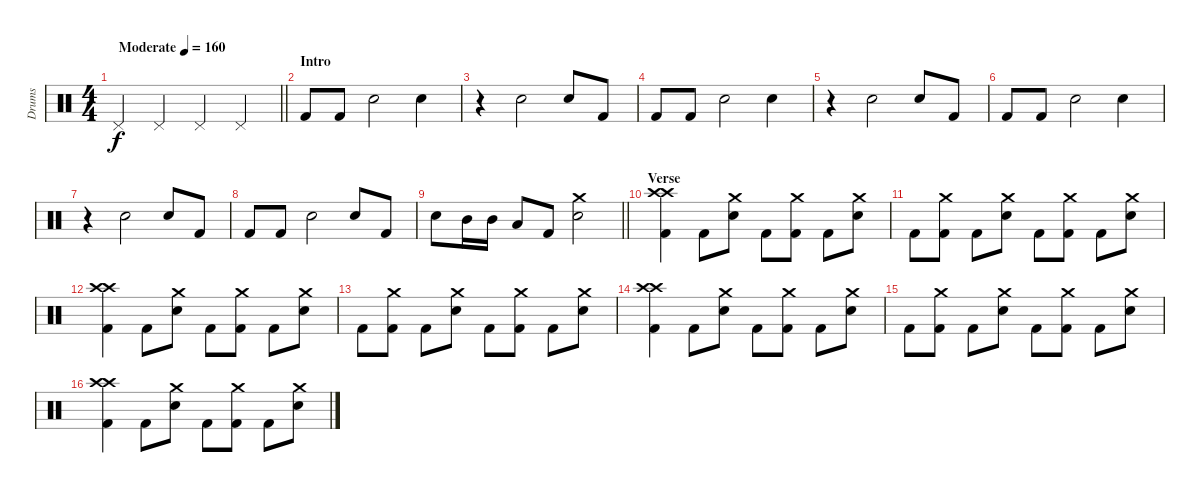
\track ("Drums" "Drums") {instrument percussion}
\staff {score}
\articulation defaults
\ts (4 4)
\tempo (160 "Moderate")
\clef neutral
\barLineRight lightlight
\ks c "Pedal Hi-Hat (hit)".4{dy f} "Pedal Hi-Hat (hit)".4 "Pedal Hi-Hat (hit)".4 "Pedal Hi-Hat (hit)".4
|
\section ("" "Intro")
"Kick (hit) 2".8 "Kick (hit) 2".8 "Electric Snare (hit)".2 "Electric Snare (hit)".4 |
r.4 "Electric Snare (hit)".2 "Electric Snare (hit)".8 "Kick (hit) 2".8 |
"Kick (hit) 2".8 "Kick (hit) 2".8 "Electric Snare (hit)".2 "Electric Snare (hit)".4 |
r.4 "Electric Snare (hit)".2 "Electric Snare (hit)".8 "Kick (hit) 2".8 |
"Kick (hit) 2".8 "Kick (hit) 2".8 "Electric Snare (hit)".2 "Electric Snare (hit)".4 |
r.4 "Electric Snare (hit)".2 "Electric Snare (hit)".8 "Kick (hit) 2".8 |
"Kick (hit) 2".8 "Kick (hit) 2".8 "Electric Snare (hit)".2 "Electric Snare (hit)".8 "Kick (hit) 2".8 |
\barLineRight lightlight "Electric Snare (hit)".8 "Mid Tom (hit)".16 "Mid Tom (hit)".16 "Low Tom (hit)".8 "Kick (hit) 2".8
("Crash medium (hit)" "Electric Snare (hit)").2 |
\section ("" "Verse")
("Crash high (hit)" "Crash high (hit)" "Kick (hit) 2").4 "Kick (hit) 2".8 ("Crash medium (hit)" "Electric Snare (hit)").8 "Kick (hit) 2".8 ("Crash medium (hit)" "Kick (hit) 2").8 "Kick (hit) 2".8 ("Crash medium (hit)" "Electric Snare (hit)").8 |
"Kick (hit) 2".8 ("Crash medium (hit)" "Kick (hit) 2").8 "Kick (hit) 2".8 ("Crash medium (hit)" "Electric Snare (hit)").8 "Kick (hit) 2".8 ("Crash medium (hit)" "Kick (hit) 2").8 "Kick (hit) 2".8 ("Crash medium (hit)" "Electric Snare (hit)").8 |
("Crash high (hit)" "Crash high (hit)" "Kick (hit) 2").4 "Kick (hit) 2".8 ("Crash medium (hit)" "Electric Snare (hit)").8 "Kick (hit) 2".8 ("Crash medium (hit)" "Kick (hit) 2").8 "Kick (hit) 2".8 ("Crash medium (hit)" "Electric Snare (hit)").8 |
"Kick (hit) 2".8 ("Crash medium (hit)" "Kick (hit) 2").8 "Kick (hit) 2".8 ("Crash medium (hit)" "Electric Snare (hit)").8 "Kick (hit) 2".8 ("Crash medium (hit)" "Kick (hit) 2").8 "Kick (hit) 2".8 ("Crash medium (hit)" "Electric Snare (hit)").8 |
("Crash high (hit)" "Crash high (hit)" "Kick (hit) 2").4 "Kick (hit) 2".8 ("Crash medium (hit)" "Electric Snare (hit)").8 "Kick (hit) 2".8 ("Crash medium (hit)" "Kick (hit) 2").8 "Kick (hit) 2".8 ("Crash medium (hit)" "Electric Snare (hit)").8 |
"Kick (hit) 2".8 ("Crash medium (hit)" "Kick (hit) 2").8 "Kick (hit) 2".8 ("Crash medium (hit)" "Electric Snare (hit)").8 "Kick (hit) 2".8 ("Crash medium (hit)" "Kick (hit) 2").8 "Kick (hit) 2".8 ("Crash medium (hit)" "Electric Snare (hit)").8 |
("Crash high (hit)" "Crash high (hit)" "Kick (hit) 2").4 "Kick (hit) 2".8 ("Crash medium (hit)" "Electric Snare (hit)").8 "Kick (hit) 2".8 ("Crash medium (hit)" "Kick (hit) 2").8 "Kick (hit) 2".8 ("Crash medium (hit)" "Electric Snare (hit)").8
